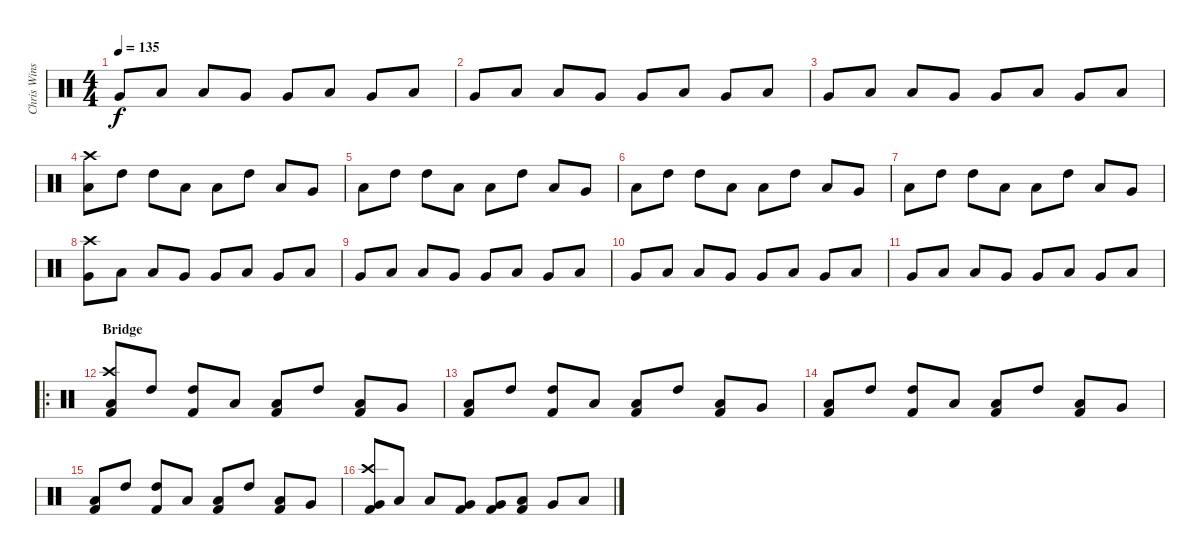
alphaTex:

\track ("Chris Winship (Drums)" "Chris Wins") {instrument percussion}
\staff {score}
\articulation defaults
\ts (4 4)
\tempo 135
\clef neutral
\ks c "Very Low Tom (hit)".8{dy f} "Low Tom (hit)".8 "Low Tom (hit)".8 "Very Low Tom (hit)".8 "Very Low Tom (hit)".8 "Low Tom (hit)".8 "Very Low Tom (hit)".8 "Low Floor Tom (hit)".8
|
"Very Low Tom (hit)".8 "Low Tom (hit)".8 "Low Tom (hit)".8 "Very Low Tom (hit)".8 "Very Low Tom (hit)".8 "Low Tom (hit)".8 "Very Low Tom (hit)".8 "Low Floor Tom (hit)".8 |
"Very Low Tom (hit)".8 "Low Tom (hit)".8 "Low Tom (hit)".8 "Very Low Tom (hit)".8 "Very Low Tom (hit)".8 "Low Tom (hit)".8 "Very Low Tom (hit)".8 "Low Floor Tom (hit)".8 |
("Crash high (hit)" "Low Tom (hit)").8 "High Tom (hit)".8 "High Tom (hit)".8 "Low Tom (hit)".8 "Low Tom (hit)".8 "High Tom (hit)".8 "Low Tom (hit)".8 "Very Low Tom (hit)".8 |
"Low Tom (hit)".8 "High Tom (hit)".8 "High Tom (hit)".8 "Low Tom (hit)".8 "Low Tom (hit)".8 "High Tom (hit)".8 "Low Tom (hit)".8 "Very Low Tom (hit)".8 |
"Low Tom (hit)".8 "High Tom (hit)".8 "High Tom (hit)".8 "Low Tom (hit)".8 "Low Tom (hit)".8 "High Tom (hit)".8 "Low Tom (hit)".8 "Very Low Tom (hit)".8 |
"Low Tom (hit)".8 "High Tom (hit)".8 "High Tom (hit)".8 "Low Tom (hit)".8 "Low Tom (hit)".8 "High Tom (hit)".8 "Low Tom (hit)".8 "Very Low Tom (hit)".8 |
("Crash high (hit)" "Very Low Tom (hit)").8 "Low Tom (hit)".8 "Low Tom (hit)".8 "Very Low Tom (hit)".8 "Very Low Tom (hit)".8 "Low Tom (hit)".8 "Very Low Tom (hit)".8 "Low Floor Tom (hit)".8 |
"Very Low Tom (hit)".8 "Low Tom (hit)".8 "Low Tom (hit)".8 "Very Low Tom (hit)".8 "Very Low Tom (hit)".8 "Low Tom (hit)".8 "Very Low Tom (hit)".8 "Low Floor Tom (hit)".8 |
"Very Low Tom (hit)".8 "Low Tom (hit)".8 "Low Tom (hit)".8 "Very Low Tom (hit)".8 "Very Low Tom (hit)".8 "Low Tom (hit)".8 "Very Low Tom (hit)".8 "Low Floor Tom (hit)".8 |
"Very Low Tom (hit)".8 "Low Tom (hit)".8 "Low Tom (hit)".8 "Very Low Tom (hit)".8 "Very Low Tom (hit)".8 "Low Tom (hit)".8 "Very Low Tom (hit)".8 "Low Floor Tom (hit)".8 |
\ro
\section ("" "Bridge")
("Crash high (hit)" "Low Tom (hit)" "Kick (hit) 2").8 "High Tom (hit)".8 ("High Tom (hit)" "Kick (hit) 2").8 "Low Tom (hit)".8 ("Low Tom (hit)" "Kick (hit) 2").8 "High Tom (hit)".8 ("Low Tom (hit)" "Kick (hit) 2").8 "Very Low Tom (hit)".8 |
("Low Tom (hit)" "Kick (hit) 2").8 "High Tom (hit)".8 ("High Tom (hit)" "Kick (hit) 2").8 "Low Tom (hit)".8 ("Low Tom (hit)" "Kick (hit) 2").8 "High Tom (hit)".8 ("Low Tom (hit)" "Kick (hit) 2").8 "Very Low Tom (hit)".8 |
("Low Tom (hit)" "Kick (hit) 2").8 "High Tom (hit)".8 ("High Tom (hit)" "Kick (hit) 2").8 "Low Tom (hit)".8 ("Low Tom (hit)" "Kick (hit) 2").8 "High Tom (hit)".8 ("Low Tom (hit)" "Kick (hit) 2").8 "Very Low Tom (hit)".8 |
("Low Tom (hit)" "Kick (hit) 2").8 "High Tom (hit)".8 ("High Tom (hit)" "Kick (hit) 2").8 "Low Tom (hit)".8 ("Low Tom (hit)" "Kick (hit) 2").8 "High Tom (hit)".8 ("Low Tom (hit)" "Kick (hit) 2").8 "Very Low Tom (hit)".8 |
("Crash high (hit)" "Very Low Tom (hit)" "Kick (hit) 2").8 "Low Tom (hit)".8 "Low Tom (hit)".8 ("Very Low Tom (hit)" "Kick (hit) 2").8 ("Very Low Tom (hit)" "Kick (hit) 2").8 ("Low Tom (hit)" "Kick (hit) 2").8 "Very Low Tom (hit)".8 "Low Floor Tom (hit)".8
